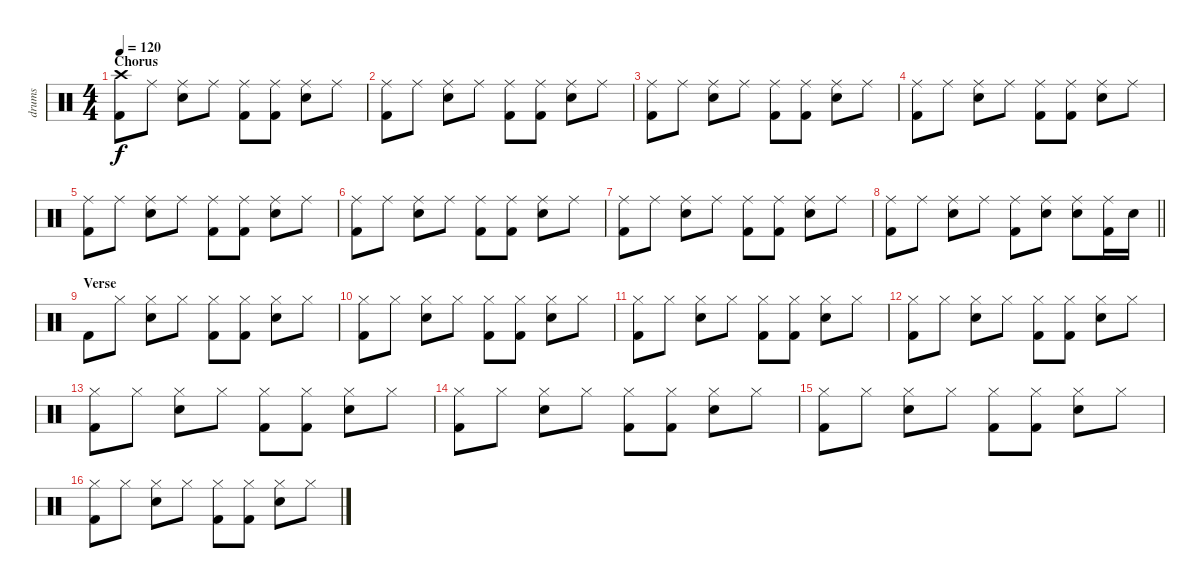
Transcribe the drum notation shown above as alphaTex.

\track ("drums" "drums") {instrument percussion}
\staff {score}
\articulation defaults
\ts (4 4)
\section ("" "Chorus")
\tempo 120
\clef neutral
\ks c
("Crash high (hit)" "Kick (hit) 2").8{dy f} "Ride (middle)".8 ("Ride (middle)" "Snare (hit) 2").8 "Ride (middle)".8 ("Ride (middle)" "Kick (hit) 2").8 ("Ride (middle)" "Kick (hit) 2").8 ("Ride (middle)" "Snare (hit) 2").8 "Ride (middle)".8 |
("Ride (middle)" "Kick (hit) 2").8 "Ride (middle)".8 ("Ride (middle)" "Snare (hit) 2").8 "Ride (middle)".8 ("Ride (middle)" "Kick (hit) 2").8 ("Ride (middle)" "Kick (hit) 2").8 ("Ride (middle)" "Snare (hit) 2").8 "Ride (middle)".8 |
("Ride (middle)" "Kick (hit) 2").8 "Ride (middle)".8 ("Ride (middle)" "Snare (hit) 2").8 "Ride (middle)".8 ("Ride (middle)" "Kick (hit) 2").8 ("Ride (middle)" "Kick (hit) 2").8 ("Ride (middle)" "Snare (hit) 2").8 "Ride (middle)".8 |
("Ride (middle)" "Kick (hit) 2").8 "Ride (middle)".8 ("Ride (middle)" "Snare (hit) 2").8 "Ride (middle)".8 ("Ride (middle)" "Kick (hit) 2").8 ("Ride (middle)" "Kick (hit) 2").8 ("Ride (middle)" "Snare (hit) 2").8 "Ride (middle)".8 |
("Ride (middle)" "Kick (hit) 2").8 "Ride (middle)".8 ("Ride (middle)" "Snare (hit) 2").8 "Ride (middle)".8 ("Ride (middle)" "Kick (hit) 2").8 ("Ride (middle)" "Kick (hit) 2").8 ("Ride (middle)" "Snare (hit) 2").8 "Ride (middle)".8 |
("Ride (middle)" "Kick (hit) 2").8 "Ride (middle)".8 ("Ride (middle)" "Snare (hit) 2").8 "Ride (middle)".8 ("Ride (middle)" "Kick (hit) 2").8 ("Ride (middle)" "Kick (hit) 2").8 ("Ride (middle)" "Snare (hit) 2").8 "Ride (middle)".8 |
("Ride (middle)" "Kick (hit) 2").8 "Ride (middle)".8 ("Ride (middle)" "Snare (hit) 2").8 "Ride (middle)".8 ("Ride (middle)" "Kick (hit) 2").8 ("Ride (middle)" "Kick (hit) 2").8 ("Ride (middle)" "Snare (hit) 2").8 "Ride (middle)".8 |
\barLineRight lightlight
("Ride (middle)" "Kick (hit) 2").8 "Ride (middle)".8 ("Ride (middle)" "Snare (hit) 2").8 "Ride (middle)".8 ("Ride (middle)" "Kick (hit) 2").8 ("Ride (middle)" "Snare (hit) 2").8 ("Ride (middle)" "Snare (hit) 2").8 ("Ride (middle)" "Kick (hit) 2").16 "Snare (hit) 2".16 |
\section ("" "Verse")
"Kick (hit) 2".8 "Hi-Hat (closed)".8 ("Hi-Hat (closed)" "Snare (hit) 2").8 "Hi-Hat (closed)".8 ("Hi-Hat (closed)" "Kick (hit) 2").8 ("Hi-Hat (closed)" "Kick (hit) 2").8 ("Hi-Hat (closed)" "Snare (hit) 2").8 "Hi-Hat (closed)".8 |
("Hi-Hat (closed)" "Kick (hit) 2").8 "Hi-Hat (closed)".8 ("Hi-Hat (closed)" "Snare (hit) 2").8 "Hi-Hat (closed)".8 ("Hi-Hat (closed)" "Kick (hit) 2").8 ("Hi-Hat (closed)" "Kick (hit) 2").8 ("Hi-Hat (closed)" "Snare (hit) 2").8 "Hi-Hat (closed)".8 |
("Hi-Hat (closed)" "Kick (hit) 2").8 "Hi-Hat (closed)".8 ("Hi-Hat (closed)" "Snare (hit) 2").8 "Hi-Hat (closed)".8 ("Hi-Hat (closed)" "Kick (hit) 2").8 ("Hi-Hat (closed)" "Kick (hit) 2").8 ("Hi-Hat (closed)" "Snare (hit) 2").8 "Hi-Hat (closed)".8 |
("Hi-Hat (closed)" "Kick (hit) 2").8 "Hi-Hat (closed)".8 ("Hi-Hat (closed)" "Snare (hit) 2").8 "Hi-Hat (closed)".8 ("Hi-Hat (closed)" "Kick (hit) 2").8 ("Hi-Hat (closed)" "Kick (hit) 2").8 ("Hi-Hat (closed)" "Snare (hit) 2").8 "Hi-Hat (closed)".8 |
("Hi-Hat (closed)" "Kick (hit) 2").8 "Hi-Hat (closed)".8 ("Hi-Hat (closed)" "Snare (hit) 2").8 "Hi-Hat (closed)".8 ("Hi-Hat (closed)" "Kick (hit) 2").8 ("Hi-Hat (closed)" "Kick (hit) 2").8 ("Hi-Hat (closed)" "Snare (hit) 2").8 "Hi-Hat (closed)".8 |
("Hi-Hat (closed)" "Kick (hit) 2").8 "Hi-Hat (closed)".8 ("Hi-Hat (closed)" "Snare (hit) 2").8 "Hi-Hat (closed)".8 ("Hi-Hat (closed)" "Kick (hit) 2").8 ("Hi-Hat (closed)" "Kick (hit) 2").8 ("Hi-Hat (closed)" "Snare (hit) 2").8 "Hi-Hat (closed)".8 |
("Hi-Hat (closed)" "Kick (hit) 2").8 "Hi-Hat (closed)".8 ("Hi-Hat (closed)" "Snare (hit) 2").8 "Hi-Hat (closed)".8 ("Hi-Hat (closed)" "Kick (hit) 2").8 ("Hi-Hat (closed)" "Kick (hit) 2").8 ("Hi-Hat (closed)" "Snare (hit) 2").8 "Hi-Hat (closed)".8 |
("Hi-Hat (closed)" "Kick (hit) 2").8 "Hi-Hat (closed)".8 ("Hi-Hat (closed)" "Snare (hit) 2").8 "Hi-Hat (closed)".8 ("Hi-Hat (closed)" "Kick (hit) 2").8 ("Hi-Hat (closed)" "Kick (hit) 2").8 ("Hi-Hat (closed)" "Snare (hit) 2").8 "Hi-Hat (closed)".8
